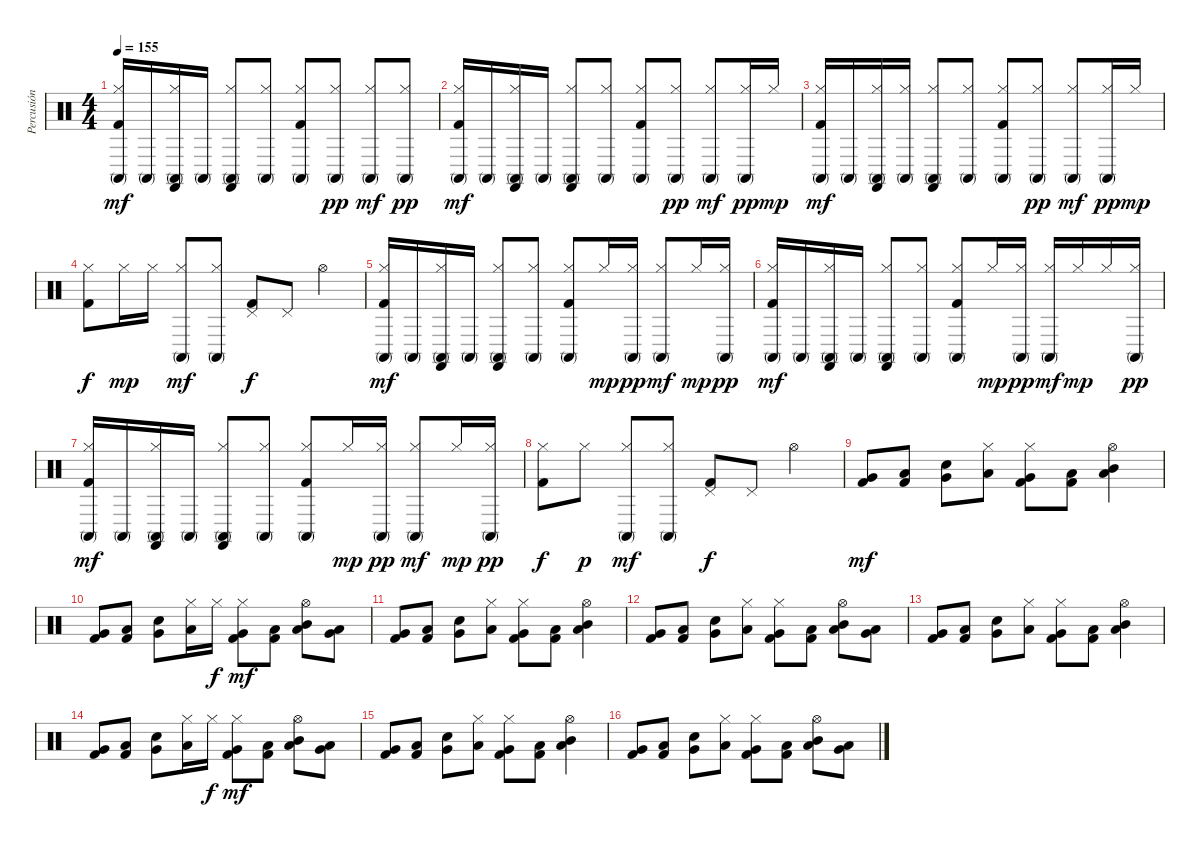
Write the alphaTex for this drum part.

\track ("Percusión" "Percusión") {instrument percussion}
\staff {score}
\articulation defaults
\ts (4 4)
\tempo 155
\clef neutral
\ks c
("Hi-Hat (closed)" "Conga high (mute)" "Kick (hit) 2").16{dy mf} "Conga high (mute)".16 ("Hi-Hat (closed)" "Castanets (hit)" "Conga high (mute)").16 "Conga high (mute)".16 ("Hi-Hat (closed)" "Castanets (hit)" "Conga high (mute)").8 ("Hi-Hat (closed)" "Conga high (mute)").8 ("Hi-Hat (closed)" "Conga high (mute)" "Kick (hit) 2").8 ("Hi-Hat (closed)" "Conga high (mute)").8{dy pp} ("Hi-Hat (closed)" "Conga high (mute)").8{dy mf} ("Hi-Hat (closed)" "Conga high (mute)").8{dy pp} |
("Hi-Hat (closed)" "Conga high (mute)" "Kick (hit) 2").16{dy mf} "Conga high (mute)".16 ("Hi-Hat (closed)" "Castanets (hit)" "Conga high (mute)").16 "Conga high (mute)".16 ("Hi-Hat (closed)" "Castanets (hit)" "Conga high (mute)").8 ("Hi-Hat (closed)" "Conga high (mute)").8 ("Hi-Hat (closed)" "Conga high (mute)" "Kick (hit) 2").8 ("Hi-Hat (closed)" "Conga high (mute)").8{dy pp} ("Hi-Hat (closed)" "Conga high (mute)").8{dy mf} ("Hi-Hat (closed)" "Conga high (mute)").16{dy pp} "Hi-Hat (closed)".16{dy mp} |
("Hi-Hat (closed)" "Conga high (mute)" "Kick (hit) 2").16{dy mf} "Conga high (mute)".16 ("Hi-Hat (closed)" "Castanets (hit)" "Conga high (mute)").16 ("Hi-Hat (closed)" "Conga high (mute)").16 ("Hi-Hat (closed)" "Castanets (hit)" "Conga high (mute)").8 ("Hi-Hat (closed)" "Conga high (mute)").8 ("Hi-Hat (closed)" "Conga high (mute)" "Kick (hit) 2").8 ("Hi-Hat (closed)" "Conga high (mute)").8{dy pp} ("Hi-Hat (closed)" "Conga high (mute)").8{dy mf} ("Hi-Hat (closed)" "Conga high (mute)").16{dy pp} "Hi-Hat (closed)".16{dy mp} |
("Hi-Hat (closed)" "Kick (hit) 2").8{dy f} "Hi-Hat (closed)".16{dy mp} "Hi-Hat (closed)".16 ("Hi-Hat (closed)" "Conga high (mute)").8{dy mf} ("Hi-Hat (closed)" "Conga high (mute)").8 ("Pedal Hi-Hat (hit)" "Kick (hit) 2").8{dy f} "Pedal Hi-Hat (hit)".8 "Hi-Hat (open)".4 |
("Hi-Hat (closed)" "Conga high (mute)" "Kick (hit) 2").16{dy mf} "Conga high (mute)".16 ("Hi-Hat (closed)" "Castanets (hit)" "Conga high (mute)").16 "Conga high (mute)".16 ("Hi-Hat (closed)" "Castanets (hit)" "Conga high (mute)").8 ("Hi-Hat (closed)" "Conga high (mute)").8 ("Hi-Hat (closed)" "Conga high (mute)" "Kick (hit) 2").8 "Hi-Hat (closed)".16{dy mp} ("Hi-Hat (closed)" "Conga high (mute)").16{dy pp} ("Hi-Hat (closed)" "Conga high (mute)").8{dy mf} "Hi-Hat (closed)".16{dy mp} ("Hi-Hat (closed)" "Conga high (mute)").16{dy pp} |
("Hi-Hat (closed)" "Conga high (mute)" "Kick (hit) 2").16{dy mf} "Conga high (mute)".16 ("Hi-Hat (closed)" "Castanets (hit)" "Conga high (mute)").16 "Conga high (mute)".16 ("Hi-Hat (closed)" "Castanets (hit)" "Conga high (mute)").8 ("Hi-Hat (closed)" "Conga high (mute)").8 ("Hi-Hat (closed)" "Conga high (mute)" "Kick (hit) 2").8 "Hi-Hat (closed)".16{dy mp} ("Hi-Hat (closed)" "Conga high (mute)").16{dy pp} ("Hi-Hat (closed)" "Conga high (mute)").16{dy mf} "Hi-Hat (closed)".16{dy mp} "Hi-Hat (closed)".16 ("Hi-Hat (closed)" "Conga high (mute)").16{dy pp} |
("Hi-Hat (closed)" "Conga high (mute)" "Kick (hit) 2").16{dy mf} "Conga high (mute)".16 ("Hi-Hat (closed)" "Castanets (hit)" "Conga high (mute)").16 "Conga high (mute)".16 ("Hi-Hat (closed)" "Castanets (hit)" "Conga high (mute)").8 ("Hi-Hat (closed)" "Conga high (mute)").8 ("Hi-Hat (closed)" "Conga high (mute)" "Kick (hit) 2").8 "Hi-Hat (closed)".16{dy mp} ("Hi-Hat (closed)" "Conga high (mute)").16{dy pp} ("Hi-Hat (closed)" "Conga high (mute)").8{dy mf} "Hi-Hat (closed)".16{dy mp} ("Hi-Hat (closed)" "Conga high (mute)").16{dy pp} |
("Hi-Hat (closed)" "Kick (hit) 2").8{dy f} "Hi-Hat (closed)".8{dy p} ("Hi-Hat (closed)" "Conga high (mute)").8{dy mf} ("Hi-Hat (closed)" "Conga high (mute)").8 ("Pedal Hi-Hat (hit)" "Kick (hit) 2").8{dy f} "Pedal Hi-Hat (hit)".8 "Hi-Hat (open)".4 |
("Kick (hit) 2" "Very Low Tom (hit)").8{dy mf} ("Kick (hit) 2" "Low Floor Tom (hit)").8 ("Snare (hit) 2" "Very Low Tom (hit)").8 ("Hi-Hat (closed)" "Low Tom (hit)").8 ("Hi-Hat (closed)" "Kick (hit) 2" "Very Low Tom (hit)").8 ("Kick (hit) 2" "Low Floor Tom (hit)").8 ("Hi-Hat (open)" "Mid Tom (hit)" "Low Floor Tom (hit)").4 |
("Kick (hit) 2" "Very Low Tom (hit)").8 ("Kick (hit) 2" "Low Floor Tom (hit)").8 ("Snare (hit) 2" "Very Low Tom (hit)").8 ("Hi-Hat (closed)" "Low Tom (hit)").16 "Hi-Hat (closed)".16{dy f} ("Hi-Hat (closed)" "Kick (hit) 2" "Very Low Tom (hit)").8{dy mf} ("Kick (hit) 2" "Low Floor Tom (hit)").8 ("Hi-Hat (open)" "Mid Tom (hit)" "Low Floor Tom (hit)").8 ("Low Tom (hit)" "Very Low Tom (hit)").8 |
("Kick (hit) 2" "Very Low Tom (hit)").8 ("Kick (hit) 2" "Low Floor Tom (hit)").8 ("Snare (hit) 2" "Very Low Tom (hit)").8 ("Hi-Hat (closed)" "Low Tom (hit)").8 ("Hi-Hat (closed)" "Kick (hit) 2" "Very Low Tom (hit)").8 ("Kick (hit) 2" "Low Floor Tom (hit)").8 ("Hi-Hat (open)" "Mid Tom (hit)" "Low Floor Tom (hit)").4 |
("Kick (hit) 2" "Very Low Tom (hit)").8 ("Kick (hit) 2" "Low Floor Tom (hit)").8 ("Snare (hit) 2" "Very Low Tom (hit)").8 ("Hi-Hat (closed)" "Low Tom (hit)").8 ("Hi-Hat (closed)" "Kick (hit) 2" "Very Low Tom (hit)").8 ("Kick (hit) 2" "Low Floor Tom (hit)").8 ("Hi-Hat (open)" "Mid Tom (hit)" "Low Floor Tom (hit)").8 ("Low Tom (hit)" "Very Low Tom (hit)").8 |
("Kick (hit) 2" "Very Low Tom (hit)").8 ("Kick (hit) 2" "Low Floor Tom (hit)").8 ("Snare (hit) 2" "Very Low Tom (hit)").8 ("Hi-Hat (closed)" "Low Tom (hit)").8 ("Hi-Hat (closed)" "Kick (hit) 2" "Very Low Tom (hit)").8 ("Kick (hit) 2" "Low Floor Tom (hit)").8 ("Hi-Hat (open)" "Mid Tom (hit)" "Low Floor Tom (hit)").4 |
("Kick (hit) 2" "Very Low Tom (hit)").8 ("Kick (hit) 2" "Low Floor Tom (hit)").8 ("Snare (hit) 2" "Very Low Tom (hit)").8 ("Hi-Hat (closed)" "Low Tom (hit)").16 "Hi-Hat (closed)".16{dy f} ("Hi-Hat (closed)" "Kick (hit) 2" "Very Low Tom (hit)").8{dy mf} ("Kick (hit) 2" "Low Floor Tom (hit)").8 ("Hi-Hat (open)" "Mid Tom (hit)" "Low Floor Tom (hit)").8 ("Low Tom (hit)" "Very Low Tom (hit)").8 |
("Kick (hit) 2" "Very Low Tom (hit)").8 ("Kick (hit) 2" "Low Floor Tom (hit)").8 ("Snare (hit) 2" "Very Low Tom (hit)").8 ("Hi-Hat (closed)" "Low Tom (hit)").8 ("Hi-Hat (closed)" "Kick (hit) 2" "Very Low Tom (hit)").8 ("Kick (hit) 2" "Low Floor Tom (hit)").8 ("Hi-Hat (open)" "Mid Tom (hit)" "Low Floor Tom (hit)").4 |
("Kick (hit) 2" "Very Low Tom (hit)").8 ("Kick (hit) 2" "Low Floor Tom (hit)").8 ("Snare (hit) 2" "Very Low Tom (hit)").8 ("Hi-Hat (closed)" "Low Tom (hit)").8 ("Hi-Hat (closed)" "Kick (hit) 2" "Very Low Tom (hit)").8 ("Kick (hit) 2" "Low Floor Tom (hit)").8 ("Hi-Hat (open)" "Mid Tom (hit)" "Low Floor Tom (hit)").8 ("Low Tom (hit)" "Very Low Tom (hit)").8
